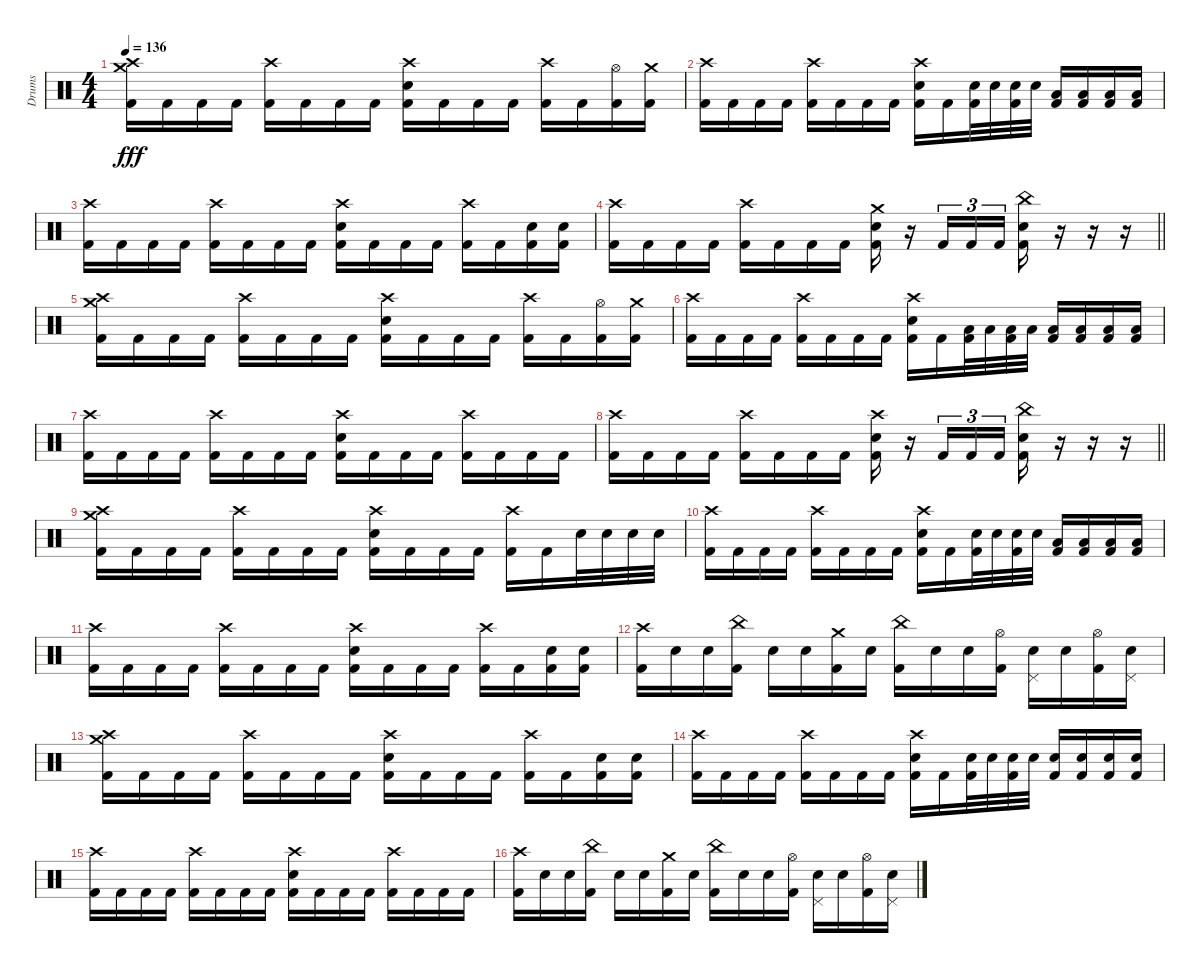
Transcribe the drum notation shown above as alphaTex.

\track ("Drums" "Drums") {instrument percussion}
\staff {score}
\articulation defaults
\ts (4 4)
\tempo 136
\clef neutral
\ks c
("Crash high (hit)" "Crash medium (hit)" "Kick (hit) 2").16{dy fff} "Kick (hit) 2".16 "Kick (hit) 2".16 "Kick (hit) 2".16 ("Crash high (hit)" "Kick (hit) 2").16 "Kick (hit) 2".16 "Kick (hit) 2".16 "Kick (hit) 2".16 ("Crash high (hit)" "Electric Snare (hit)" "Kick (hit) 2").16 "Kick (hit) 2".16 "Kick (hit) 2".16 "Kick (hit) 2".16 ("Crash high (hit)" "Kick (hit) 2").16 "Kick (hit) 2".16 ("Hi-Hat (open)" "Kick (hit) 2").16 ("Crash medium (hit)" "Kick (hit) 2").16 |
("Crash high (hit)" "Kick (hit) 2").16 "Kick (hit) 2".16 "Kick (hit) 2".16 "Kick (hit) 2".16 ("Crash high (hit)" "Kick (hit) 2").16 "Kick (hit) 2".16 "Kick (hit) 2".16 "Kick (hit) 2".16 ("Crash high (hit)" "Electric Snare (hit)" "Kick (hit) 2").16 "Kick (hit) 2".16 ("Electric Snare (hit)" "Kick (hit) 2").32 "Electric Snare (hit)".32 ("Electric Snare (hit)" "Kick (hit) 2").32 "Electric Snare (hit)".32 ("Low Tom (hit)" "Kick (hit) 2").16 ("Low Tom (hit)" "Kick (hit) 2").16 ("Low Floor Tom (hit)" "Kick (hit) 2").16 ("Low Floor Tom (hit)" "Kick (hit) 2").16 |
("Crash high (hit)" "Kick (hit) 2").16 "Kick (hit) 2".16 "Kick (hit) 2".16 "Kick (hit) 2".16 ("Crash high (hit)" "Kick (hit) 2").16 "Kick (hit) 2".16 "Kick (hit) 2".16 "Kick (hit) 2".16 ("Crash high (hit)" "Electric Snare (hit)" "Kick (hit) 2").16 "Kick (hit) 2".16 "Kick (hit) 2".16 "Kick (hit) 2".16 ("Crash high (hit)" "Kick (hit) 2").16 "Kick (hit) 2".16 ("Electric Snare (hit)" "Kick (hit) 2").16 ("Electric Snare (hit)" "Kick (hit) 2").16 |
\barLineRight lightlight
("Crash high (hit)" "Kick (hit) 2").16 "Kick (hit) 2".16 "Kick (hit) 2".16 "Kick (hit) 2".16 ("Crash high (hit)" "Kick (hit) 2").16 "Kick (hit) 2".16 "Kick (hit) 2".16 "Kick (hit) 2".16 ("Crash medium (hit)" "Electric Snare (hit)" "Kick (hit) 2").16 r.16 "Kick (hit) 2".16{tu (3 2)} "Kick (hit) 2".16{tu (3 2)} "Kick (hit) 2".16{tu (3 2)} ("China (hit)" "Electric Snare (hit)" "Kick (hit) 2").16 r.16 r.16 r.16 |
("Crash high (hit)" "Crash medium (hit)" "Kick (hit) 2").16 "Kick (hit) 2".16 "Kick (hit) 2".16 "Kick (hit) 2".16 ("Crash high (hit)" "Kick (hit) 2").16 "Kick (hit) 2".16 "Kick (hit) 2".16 "Kick (hit) 2".16 ("Crash high (hit)" "Electric Snare (hit)" "Kick (hit) 2").16 "Kick (hit) 2".16 "Kick (hit) 2".16 "Kick (hit) 2".16 ("Crash high (hit)" "Kick (hit) 2").16 "Kick (hit) 2".16 ("Hi-Hat (open)" "Kick (hit) 2").16 ("Crash medium (hit)" "Kick (hit) 2").16 |
("Crash high (hit)" "Kick (hit) 2").16 "Kick (hit) 2".16 "Kick (hit) 2".16 "Kick (hit) 2".16 ("Crash high (hit)" "Kick (hit) 2").16 "Kick (hit) 2".16 "Kick (hit) 2".16 "Kick (hit) 2".16 ("Crash high (hit)" "Electric Snare (hit)" "Kick (hit) 2").16 "Kick (hit) 2".16 ("Low Tom (hit)" "Kick (hit) 2").32 "Low Tom (hit)".32 ("Low Tom (hit)" "Kick (hit) 2").32 "Low Tom (hit)".32 ("Low Tom (hit)" "Kick (hit) 2").16 ("Low Tom (hit)" "Kick (hit) 2").16 ("Low Floor Tom (hit)" "Kick (hit) 2").16 ("Low Floor Tom (hit)" "Kick (hit) 2").16 |
("Crash high (hit)" "Kick (hit) 2").16 "Kick (hit) 2".16 "Kick (hit) 2".16 "Kick (hit) 2".16 ("Crash high (hit)" "Kick (hit) 2").16 "Kick (hit) 2".16 "Kick (hit) 2".16 "Kick (hit) 2".16 ("Crash high (hit)" "Electric Snare (hit)" "Kick (hit) 2").16 "Kick (hit) 2".16 "Kick (hit) 2".16 "Kick (hit) 2".16 ("Crash high (hit)" "Kick (hit) 2").16 "Kick (hit) 2".16 "Kick (hit) 2".16 "Kick (hit) 2".16 |
\barLineRight lightlight
("Crash high (hit)" "Kick (hit) 2").16 "Kick (hit) 2".16 "Kick (hit) 2".16 "Kick (hit) 2".16 ("Crash high (hit)" "Kick (hit) 2").16 "Kick (hit) 2".16 "Kick (hit) 2".16 "Kick (hit) 2".16 ("Crash high (hit)" "Electric Snare (hit)" "Kick (hit) 2").16 r.16 "Kick (hit) 2".16{tu (3 2)} "Kick (hit) 2".16{tu (3 2)} "Kick (hit) 2".16{tu (3 2)} ("China (hit)" "Electric Snare (hit)" "Kick (hit) 2").16 r.16 r.16 r.16 |
\section ("" "")
("Crash high (hit)" "Crash medium (hit)" "Kick (hit) 2").16 "Kick (hit) 2".16 "Kick (hit) 2".16 "Kick (hit) 2".16 ("Crash high (hit)" "Kick (hit) 2").16 "Kick (hit) 2".16 "Kick (hit) 2".16 "Kick (hit) 2".16 ("Crash high (hit)" "Electric Snare (hit)" "Kick (hit) 2").16 "Kick (hit) 2".16 "Kick (hit) 2".16 "Kick (hit) 2".16 ("Crash high (hit)" "Kick (hit) 2").16 "Kick (hit) 2".16 "Electric Snare (hit)".32 "Electric Snare (hit)".32 "Electric Snare (hit)".32 "Electric Snare (hit)".32 |
("Crash high (hit)" "Kick (hit) 2").16 "Kick (hit) 2".16 "Kick (hit) 2".16 "Kick (hit) 2".16 ("Crash high (hit)" "Kick (hit) 2").16 "Kick (hit) 2".16 "Kick (hit) 2".16 "Kick (hit) 2".16 ("Crash high (hit)" "Electric Snare (hit)" "Kick (hit) 2").16 "Kick (hit) 2".16 ("Electric Snare (hit)" "Kick (hit) 2").32 "Electric Snare (hit)".32 ("Electric Snare (hit)" "Kick (hit) 2").32 "Electric Snare (hit)".32 ("Low Tom (hit)" "Kick (hit) 2").16 ("Low Tom (hit)" "Kick (hit) 2").16 ("Low Floor Tom (hit)" "Kick (hit) 2").16 ("Low Floor Tom (hit)" "Kick (hit) 2").16 |
("Crash high (hit)" "Kick (hit) 2").16 "Kick (hit) 2".16 "Kick (hit) 2".16 "Kick (hit) 2".16 ("Crash high (hit)" "Kick (hit) 2").16 "Kick (hit) 2".16 "Kick (hit) 2".16 "Kick (hit) 2".16 ("Crash high (hit)" "Electric Snare (hit)" "Kick (hit) 2").16 "Kick (hit) 2".16 "Kick (hit) 2".16 "Kick (hit) 2".16 ("Crash high (hit)" "Kick (hit) 2").16 "Kick (hit) 2".16 ("Electric Snare (hit)" "Kick (hit) 2").16 ("Electric Snare (hit)" "Kick (hit) 2").16 |
("Crash high (hit)" "Kick (hit) 2").16 "Electric Snare (hit)".16 "Electric Snare (hit)".16 ("China (hit)" "Kick (hit) 2").16 "Electric Snare (hit)".16 "Electric Snare (hit)".16 ("Crash medium (hit)" "Kick (hit) 2").16 "Electric Snare (hit)".16 ("China (hit)" "Kick (hit) 2").16 "Electric Snare (hit)".16 "Electric Snare (hit)".16 ("Hi-Hat (open)" "Kick (hit) 2").16 ("Pedal Hi-Hat (hit)" "Electric Snare (hit)").16 "Electric Snare (hit)".16 ("Hi-Hat (open)" "Kick (hit) 2").16 ("Pedal Hi-Hat (hit)" "Electric Snare (hit)").16 |
("Crash high (hit)" "Crash medium (hit)" "Kick (hit) 2").16 "Kick (hit) 2".16 "Kick (hit) 2".16 "Kick (hit) 2".16 ("Crash high (hit)" "Kick (hit) 2").16 "Kick (hit) 2".16 "Kick (hit) 2".16 "Kick (hit) 2".16 ("Crash high (hit)" "Electric Snare (hit)" "Kick (hit) 2").16 "Kick (hit) 2".16 "Kick (hit) 2".16 "Kick (hit) 2".16 ("Crash high (hit)" "Kick (hit) 2").16 "Kick (hit) 2".16 ("Electric Snare (hit)" "Kick (hit) 2").16 ("Electric Snare (hit)" "Kick (hit) 2").16 |
("Crash high (hit)" "Kick (hit) 2").16 "Kick (hit) 2".16 "Kick (hit) 2".16 "Kick (hit) 2".16 ("Crash high (hit)" "Kick (hit) 2").16 "Kick (hit) 2".16 "Kick (hit) 2".16 "Kick (hit) 2".16 ("Crash high (hit)" "Electric Snare (hit)" "Kick (hit) 2").16 "Kick (hit) 2".16 ("Electric Snare (hit)" "Kick (hit) 2").32 "Electric Snare (hit)".32 ("Electric Snare (hit)" "Kick (hit) 2").32 "Electric Snare (hit)".32 ("Electric Snare (hit)" "Kick (hit) 2").16 ("Electric Snare (hit)" "Kick (hit) 2").16 ("Electric Snare (hit)" "Kick (hit) 2").16 ("Electric Snare (hit)" "Kick (hit) 2").16 |
("Crash high (hit)" "Kick (hit) 2").16 "Kick (hit) 2".16 "Kick (hit) 2".16 "Kick (hit) 2".16 ("Crash high (hit)" "Kick (hit) 2").16 "Kick (hit) 2".16 "Kick (hit) 2".16 "Kick (hit) 2".16 ("Crash high (hit)" "Electric Snare (hit)" "Kick (hit) 2").16 "Kick (hit) 2".16 "Kick (hit) 2".16 "Kick (hit) 2".16 ("Crash high (hit)" "Kick (hit) 2").16 "Kick (hit) 2".16 "Kick (hit) 2".16 "Kick (hit) 2".16 |
("Crash high (hit)" "Kick (hit) 2").16 "Electric Snare (hit)".16 "Electric Snare (hit)".16 ("China (hit)" "Kick (hit) 2").16 "Electric Snare (hit)".16 "Electric Snare (hit)".16 ("Crash medium (hit)" "Kick (hit) 2").16 "Electric Snare (hit)".16 ("China (hit)" "Kick (hit) 2").16 "Electric Snare (hit)".16 "Electric Snare (hit)".16 ("Hi-Hat (open)" "Kick (hit) 2").16 ("Pedal Hi-Hat (hit)" "Electric Snare (hit)").16 "Electric Snare (hit)".16 ("Hi-Hat (open)" "Kick (hit) 2").16 ("Pedal Hi-Hat (hit)" "Electric Snare (hit)").16
